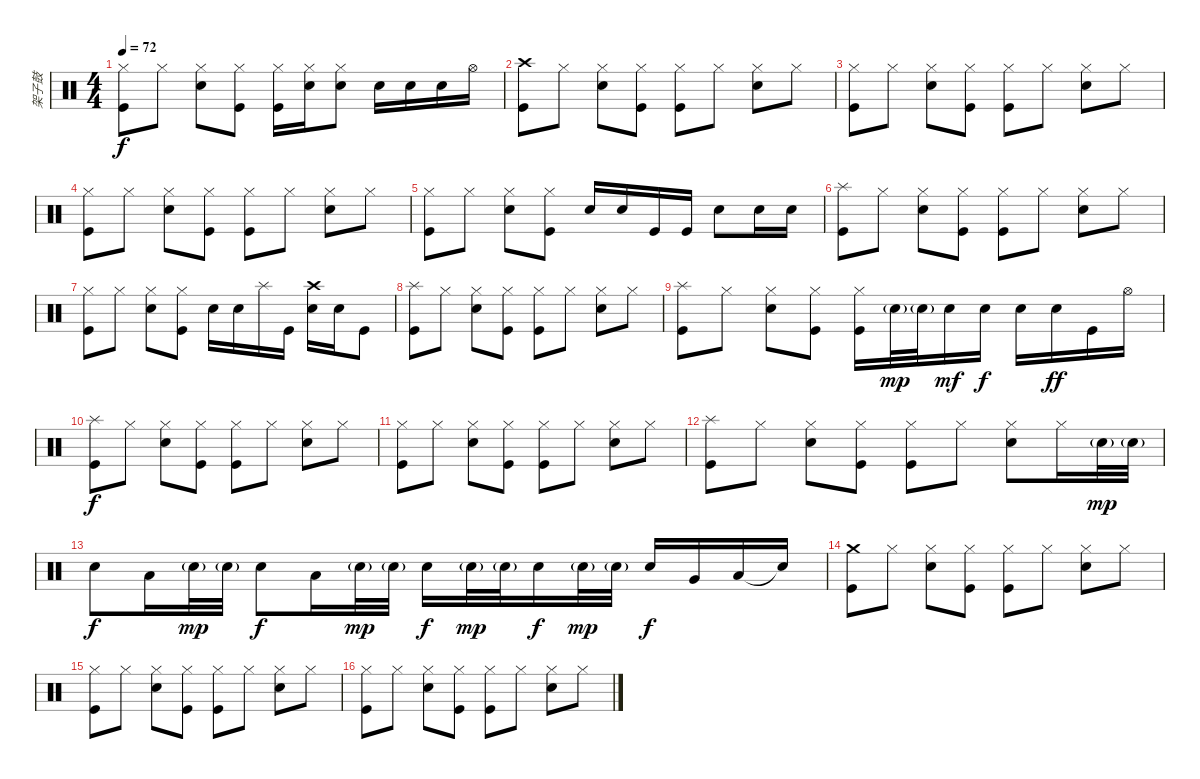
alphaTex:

\track ("架子鼓" "架子鼓") {instrument percussion}
\staff {score}
\articulation defaults
\ts (4 4)
\tempo 72
\clef neutral
\ks c
("Hi-Hat (closed)" "Kick (hit)").8{dy f} "Hi-Hat (closed)".8 ("Hi-Hat (closed)" "Electric Snare (hit)").8 ("Hi-Hat (closed)" "Kick (hit)").8 ("Hi-Hat (closed)" "Kick (hit)").16 ("Hi-Hat (closed)" "Electric Snare (hit)").16 ("Hi-Hat (closed)" "Electric Snare (hit)").8 "Electric Snare (hit)".16 "Electric Snare (hit)".16 "Electric Snare (hit)".16 "Hi-Hat (open)".16 |
("Crash high (hit)" "Kick (hit)").8 "Hi-Hat (closed)".8 ("Hi-Hat (closed)" "Snare (hit) 2").8 ("Hi-Hat (closed)" "Kick (hit)").8 ("Hi-Hat (closed)" "Kick (hit)").8 "Hi-Hat (closed)".8 ("Hi-Hat (closed)" "Snare (hit) 2").8 "Hi-Hat (closed)".8 |
("Hi-Hat (closed)" "Kick (hit)").8 "Hi-Hat (closed)".8 ("Hi-Hat (closed)" "Electric Snare (hit)").8 ("Hi-Hat (closed)" "Kick (hit)").8 ("Hi-Hat (closed)" "Kick (hit)").8 "Hi-Hat (closed)".8 ("Hi-Hat (closed)" "Electric Snare (hit)").8 "Hi-Hat (closed)".8 |
("Hi-Hat (closed)" "Kick (hit)").8 "Hi-Hat (closed)".8 ("Hi-Hat (closed)" "Electric Snare (hit)").8 ("Hi-Hat (closed)" "Kick (hit)").8 ("Hi-Hat (closed)" "Kick (hit)").8 "Hi-Hat (closed)".8 ("Hi-Hat (closed)" "Electric Snare (hit)").8 "Hi-Hat (closed)".8 |
("Hi-Hat (closed)" "Kick (hit)").8 "Hi-Hat (closed)".8 ("Hi-Hat (closed)" "Electric Snare (hit)").8 ("Hi-Hat (closed)" "Kick (hit)").8 "Electric Snare (hit)".16 "Electric Snare (hit)".16 "Kick (hit)".16 "Kick (hit)".16 "Electric Snare (hit)".8 "Electric Snare (hit)".16 "Electric Snare (hit)".16 |
("Splash (hit)" "Kick (hit)").8 "Hi-Hat (closed)".8 ("Hi-Hat (closed)" "Electric Snare (hit)").8 ("Hi-Hat (closed)" "Kick (hit)").8 ("Hi-Hat (closed)" "Kick (hit)").8 "Hi-Hat (closed)".8 ("Hi-Hat (closed)" "Electric Snare (hit)").8 "Hi-Hat (closed)".8 |
("Hi-Hat (closed)" "Kick (hit)").8 "Hi-Hat (closed)".8 ("Hi-Hat (closed)" "Electric Snare (hit)").8 ("Hi-Hat (closed)" "Kick (hit)").8 "Electric Snare (hit)".16 "Electric Snare (hit)".16 "Splash (hit)".16 "Kick (hit)".16 ("Crash high (hit)" "Electric Snare (hit)").16 "Electric Snare (hit)".16 "Kick (hit)".8 |
("Splash (hit)" "Kick (hit)").8 "Hi-Hat (closed)".8 ("Hi-Hat (closed)" "Electric Snare (hit)").8 ("Hi-Hat (closed)" "Kick (hit)").8 ("Hi-Hat (closed)" "Kick (hit)").8 "Hi-Hat (closed)".8 ("Hi-Hat (closed)" "Electric Snare (hit)").8 "Hi-Hat (closed)".8 |
("Splash (hit)" "Kick (hit)").8 "Hi-Hat (closed)".8 ("Hi-Hat (closed)" "Electric Snare (hit)").8 ("Hi-Hat (closed)" "Kick (hit)").8 ("Hi-Hat (closed)" "Kick (hit)").16 "Electric Snare (hit)"{g}.32{dy mp} "Electric Snare (hit)"{g}.32 "Electric Snare (hit)".16{dy mf} "Electric Snare (hit)".16{dy f} "Electric Snare (hit)".16 "Electric Snare (hit)".16{dy ff} "Kick (hit)".16 "Hi-Hat (open)".16 |
("Splash (hit)" "Kick (hit)").8{dy f} "Hi-Hat (closed)".8 ("Hi-Hat (closed)" "Electric Snare (hit)").8 ("Hi-Hat (closed)" "Kick (hit)").8 ("Hi-Hat (closed)" "Kick (hit)").8 "Hi-Hat (closed)".8 ("Hi-Hat (closed)" "Electric Snare (hit)").8 "Hi-Hat (closed)".8 |
("Hi-Hat (closed)" "Kick (hit)").8 "Hi-Hat (closed)".8 ("Hi-Hat (closed)" "Electric Snare (hit)").8 ("Hi-Hat (closed)" "Kick (hit)").8 ("Hi-Hat (closed)" "Kick (hit)").8 "Hi-Hat (closed)".8 ("Hi-Hat (closed)" "Electric Snare (hit)").8 "Hi-Hat (closed)".8 |
("Splash (hit)" "Kick (hit)").8 "Hi-Hat (closed)".8 ("Hi-Hat (closed)" "Electric Snare (hit)").8 ("Hi-Hat (closed)" "Kick (hit)").8 ("Hi-Hat (closed)" "Kick (hit)").8 "Hi-Hat (closed)".8 ("Hi-Hat (closed)" "Electric Snare (hit)").8 "Hi-Hat (closed)".16 "Electric Snare (hit)"{g}.32{dy mp} "Electric Snare (hit)"{g}.32 |
"Electric Snare (hit)".8{dy f} "Low Tom (hit)".16 "Electric Snare (hit)"{g}.32{dy mp} "Electric Snare (hit)"{g}.32 "Electric Snare (hit)".8{dy f} "Low Tom (hit)".16 "Electric Snare (hit)"{g}.32{dy mp} "Electric Snare (hit)"{g}.32 "Electric Snare (hit)".16{dy f} "Electric Snare (hit)"{g}.32{dy mp} "Electric Snare (hit)"{g}.32 "Electric Snare (hit)".16{dy f} "Electric Snare (hit)"{g}.32{dy mp} "Electric Snare (hit)"{g}.32 "Electric Snare (hit)".16{dy f} "Very Low Tom (hit)".16 "Low Floor Tom (hit)".16 "Snare (hit)"{t}.16 |
("Crash medium (hit)" "Kick (hit)").8 "Hi-Hat (closed)".8 ("Hi-Hat (closed)" "Electric Snare (hit)").8 ("Hi-Hat (closed)" "Kick (hit)").8 ("Hi-Hat (closed)" "Kick (hit)").8 "Hi-Hat (closed)".8 ("Hi-Hat (closed)" "Electric Snare (hit)").8 "Hi-Hat (closed)".8 |
("Hi-Hat (closed)" "Kick (hit)").8 "Hi-Hat (closed)".8 ("Hi-Hat (closed)" "Electric Snare (hit)").8 ("Hi-Hat (closed)" "Kick (hit)").8 ("Hi-Hat (closed)" "Kick (hit)").8 "Hi-Hat (closed)".8 ("Hi-Hat (closed)" "Electric Snare (hit)").8 "Hi-Hat (closed)".8 |
("Hi-Hat (closed)" "Kick (hit)").8 "Hi-Hat (closed)".8 ("Hi-Hat (closed)" "Electric Snare (hit)").8 ("Hi-Hat (closed)" "Kick (hit)").8 ("Hi-Hat (closed)" "Kick (hit)").8 "Hi-Hat (closed)".8 ("Hi-Hat (closed)" "Electric Snare (hit)").8 "Hi-Hat (closed)".8
